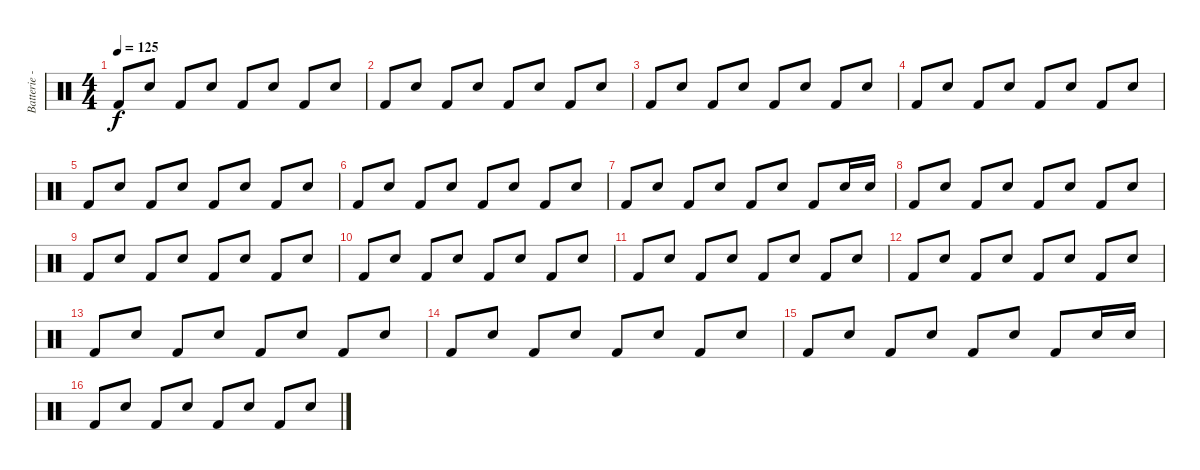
\track ("Batterie - Shane Gaalaas" "Batterie -") {instrument percussion}
\staff {score}
\articulation defaults
\ts (4 4)
\tempo 125
\clef neutral
\ks c "Kick (hit) 2".8{dy f} "Electric Snare (hit)".8 "Kick (hit) 2".8 "Electric Snare (hit)".8 "Kick (hit) 2".8 "Electric Snare (hit)".8 "Kick (hit) 2".8 "Electric Snare (hit)".8
|
"Kick (hit) 2".8 "Electric Snare (hit)".8 "Kick (hit) 2".8 "Electric Snare (hit)".8 "Kick (hit) 2".8 "Electric Snare (hit)".8 "Kick (hit) 2".8 "Electric Snare (hit)".8 |
"Kick (hit) 2".8 "Electric Snare (hit)".8 "Kick (hit) 2".8 "Electric Snare (hit)".8 "Kick (hit) 2".8 "Electric Snare (hit)".8 "Kick (hit) 2".8 "Electric Snare (hit)".8 |
"Kick (hit) 2".8 "Electric Snare (hit)".8 "Kick (hit) 2".8 "Electric Snare (hit)".8 "Kick (hit) 2".8 "Electric Snare (hit)".8 "Kick (hit) 2".8 "Electric Snare (hit)".8 |
"Kick (hit) 2".8 "Electric Snare (hit)".8 "Kick (hit) 2".8 "Electric Snare (hit)".8 "Kick (hit) 2".8 "Electric Snare (hit)".8 "Kick (hit) 2".8 "Electric Snare (hit)".8 |
"Kick (hit) 2".8 "Electric Snare (hit)".8 "Kick (hit) 2".8 "Electric Snare (hit)".8 "Kick (hit) 2".8 "Electric Snare (hit)".8 "Kick (hit) 2".8 "Electric Snare (hit)".8 |
"Kick (hit) 2".8 "Electric Snare (hit)".8 "Kick (hit) 2".8 "Electric Snare (hit)".8 "Kick (hit) 2".8 "Electric Snare (hit)".8 "Kick (hit) 2".8 "Electric Snare (hit)".16 "Electric Snare (hit)".16 |
"Kick (hit) 2".8 "Electric Snare (hit)".8 "Kick (hit) 2".8 "Electric Snare (hit)".8 "Kick (hit) 2".8 "Electric Snare (hit)".8 "Kick (hit) 2".8 "Electric Snare (hit)".8 |
"Kick (hit) 2".8 "Electric Snare (hit)".8 "Kick (hit) 2".8 "Electric Snare (hit)".8 "Kick (hit) 2".8 "Electric Snare (hit)".8 "Kick (hit) 2".8 "Electric Snare (hit)".8 |
"Kick (hit) 2".8 "Electric Snare (hit)".8 "Kick (hit) 2".8 "Electric Snare (hit)".8 "Kick (hit) 2".8 "Electric Snare (hit)".8 "Kick (hit) 2".8 "Electric Snare (hit)".8 |
"Kick (hit) 2".8 "Electric Snare (hit)".8 "Kick (hit) 2".8 "Electric Snare (hit)".8 "Kick (hit) 2".8 "Electric Snare (hit)".8 "Kick (hit) 2".8 "Electric Snare (hit)".8 |
"Kick (hit) 2".8 "Electric Snare (hit)".8 "Kick (hit) 2".8 "Electric Snare (hit)".8 "Kick (hit) 2".8 "Electric Snare (hit)".8 "Kick (hit) 2".8 "Electric Snare (hit)".8 |
"Kick (hit) 2".8 "Electric Snare (hit)".8 "Kick (hit) 2".8 "Electric Snare (hit)".8 "Kick (hit) 2".8 "Electric Snare (hit)".8 "Kick (hit) 2".8 "Electric Snare (hit)".8 |
"Kick (hit) 2".8 "Electric Snare (hit)".8 "Kick (hit) 2".8 "Electric Snare (hit)".8 "Kick (hit) 2".8 "Electric Snare (hit)".8 "Kick (hit) 2".8 "Electric Snare (hit)".8 |
"Kick (hit) 2".8 "Electric Snare (hit)".8 "Kick (hit) 2".8 "Electric Snare (hit)".8 "Kick (hit) 2".8 "Electric Snare (hit)".8 "Kick (hit) 2".8 "Electric Snare (hit)".16 "Electric Snare (hit)".16 |
"Kick (hit) 2".8 "Electric Snare (hit)".8 "Kick (hit) 2".8 "Electric Snare (hit)".8 "Kick (hit) 2".8 "Electric Snare (hit)".8 "Kick (hit) 2".8 "Electric Snare (hit)".8
